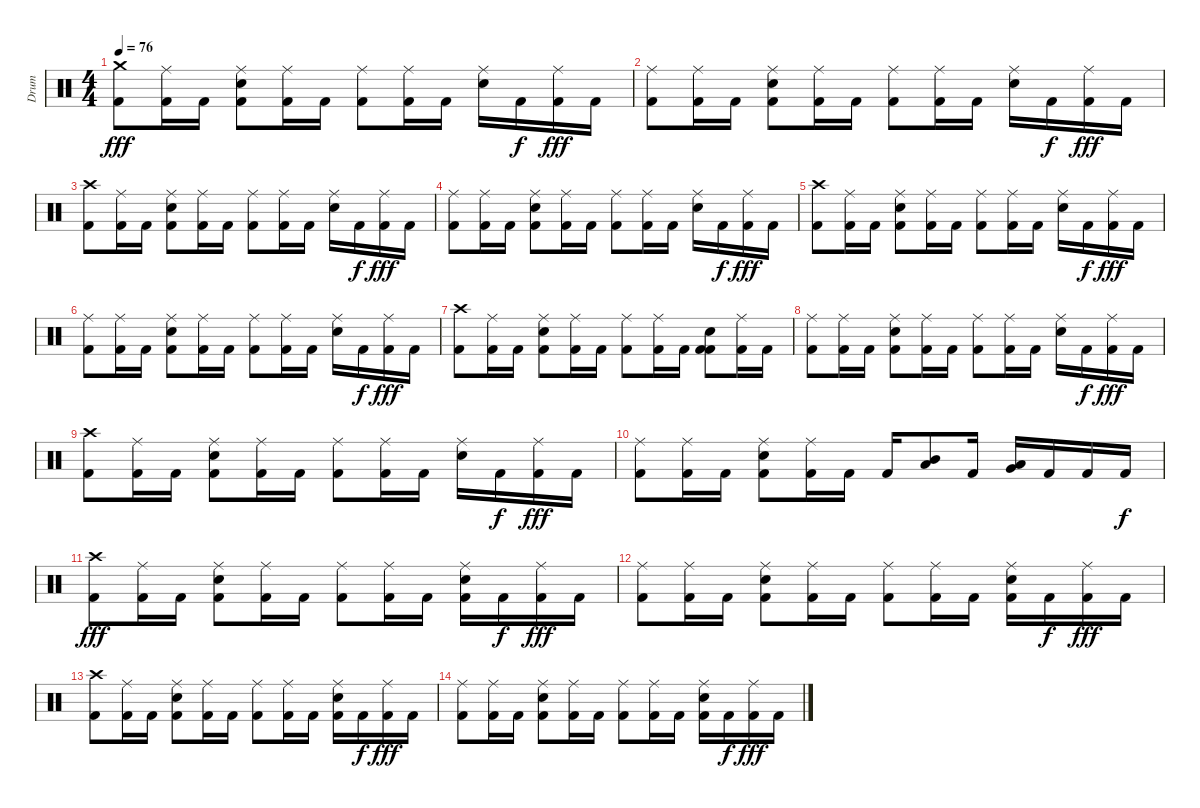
\track ("Drum" "Drum") {instrument percussion}
\staff {score}
\articulation defaults
\ts (4 4)
\tempo 76
\clef neutral
\ks c
("Kick (hit) 2" "Crash medium (hit)").8{dy fff} ("Kick (hit) 2" "Ride (middle)").16 "Kick (hit) 2".16 ("Kick (hit) 2" "Electric Snare (hit)" "Ride (middle)").8 ("Kick (hit) 2" "Ride (middle)").16 "Kick (hit) 2".16 ("Kick (hit) 2" "Ride (middle)").8 ("Kick (hit) 2" "Ride (middle)").16 "Kick (hit) 2".16 ("Electric Snare (hit)" "Ride (middle)").16 "Kick (hit) 2".16{dy f} ("Kick (hit) 2" "Ride (middle)").16{dy fff} "Kick (hit) 2".16 |
("Kick (hit) 2" "Ride (middle)").8 ("Kick (hit) 2" "Ride (middle)").16 "Kick (hit) 2".16 ("Kick (hit) 2" "Electric Snare (hit)" "Ride (middle)").8 ("Kick (hit) 2" "Ride (middle)").16 "Kick (hit) 2".16 ("Kick (hit) 2" "Ride (middle)").8 ("Kick (hit) 2" "Ride (middle)").16 "Kick (hit) 2".16 ("Electric Snare (hit)" "Ride (middle)").16 "Kick (hit) 2".16{dy f} ("Kick (hit) 2" "Ride (middle)").16{dy fff} "Kick (hit) 2".16 |
("Kick (hit) 2" "Crash high (hit)").8 ("Kick (hit) 2" "Ride (middle)").16 "Kick (hit) 2".16 ("Kick (hit) 2" "Electric Snare (hit)" "Ride (middle)").8 ("Kick (hit) 2" "Ride (middle)").16 "Kick (hit) 2".16 ("Kick (hit) 2" "Ride (middle)").8 ("Kick (hit) 2" "Ride (middle)").16 "Kick (hit) 2".16 ("Electric Snare (hit)" "Ride (middle)").16 "Kick (hit) 2".16{dy f} ("Kick (hit) 2" "Ride (middle)").16{dy fff} "Kick (hit) 2".16 |
("Kick (hit) 2" "Ride (middle)").8 ("Kick (hit) 2" "Ride (middle)").16 "Kick (hit) 2".16 ("Kick (hit) 2" "Electric Snare (hit)" "Ride (middle)").8 ("Kick (hit) 2" "Ride (middle)").16 "Kick (hit) 2".16 ("Kick (hit) 2" "Ride (middle)").8 ("Kick (hit) 2" "Ride (middle)").16 "Kick (hit) 2".16 ("Electric Snare (hit)" "Ride (middle)").16 "Kick (hit) 2".16{dy f} ("Kick (hit) 2" "Ride (middle)").16{dy fff} "Kick (hit) 2".16 |
("Kick (hit) 2" "Crash high (hit)").8 ("Kick (hit) 2" "Ride (middle)").16 "Kick (hit) 2".16 ("Kick (hit) 2" "Electric Snare (hit)" "Ride (middle)").8 ("Kick (hit) 2" "Ride (middle)").16 "Kick (hit) 2".16 ("Kick (hit) 2" "Ride (middle)").8 ("Kick (hit) 2" "Ride (middle)").16 "Kick (hit) 2".16 ("Electric Snare (hit)" "Ride (middle)").16 "Kick (hit) 2".16{dy f} ("Kick (hit) 2" "Ride (middle)").16{dy fff} "Kick (hit) 2".16 |
("Kick (hit) 2" "Ride (middle)").8 ("Kick (hit) 2" "Ride (middle)").16 "Kick (hit) 2".16 ("Kick (hit) 2" "Electric Snare (hit)" "Ride (middle)").8 ("Kick (hit) 2" "Ride (middle)").16 "Kick (hit) 2".16 ("Kick (hit) 2" "Ride (middle)").8 ("Kick (hit) 2" "Ride (middle)").16 "Kick (hit) 2".16 ("Electric Snare (hit)" "Ride (middle)").16 "Kick (hit) 2".16{dy f} ("Kick (hit) 2" "Ride (middle)").16{dy fff} "Kick (hit) 2".16 |
("Kick (hit) 2" "Crash high (hit)").8 ("Kick (hit) 2" "Ride (middle)").16 "Kick (hit) 2".16 ("Kick (hit) 2" "Electric Snare (hit)" "Ride (middle)").8 ("Kick (hit) 2" "Ride (middle)").16 "Kick (hit) 2".16 ("Kick (hit) 2" "Ride (middle)").8 ("Kick (hit) 2" "Ride (middle)").16 "Kick (hit) 2".16 ("Kick (hit) 2" "Electric Snare (hit)" "Kick (hit) 2").8 ("Kick (hit) 2" "Ride (middle)").16 "Kick (hit) 2".16 |
("Kick (hit) 2" "Ride (middle)").8 ("Kick (hit) 2" "Ride (middle)").16 "Kick (hit) 2".16 ("Kick (hit) 2" "Electric Snare (hit)" "Ride (middle)").8 ("Kick (hit) 2" "Ride (middle)").16 "Kick (hit) 2".16 ("Kick (hit) 2" "Ride (middle)").8 ("Kick (hit) 2" "Ride (middle)").16 "Kick (hit) 2".16 ("Electric Snare (hit)" "Ride (middle)").16 "Kick (hit) 2".16{dy f} ("Kick (hit) 2" "Ride (middle)").16{dy fff} "Kick (hit) 2".16 |
("Kick (hit) 2" "Crash high (hit)").8 ("Kick (hit) 2" "Ride (middle)").16 "Kick (hit) 2".16 ("Kick (hit) 2" "Electric Snare (hit)" "Ride (middle)").8 ("Kick (hit) 2" "Ride (middle)").16 "Kick (hit) 2".16 ("Kick (hit) 2" "Ride (middle)").8 ("Kick (hit) 2" "Ride (middle)").16 "Kick (hit) 2".16 ("Electric Snare (hit)" "Ride (middle)").16 "Kick (hit) 2".16{dy f} ("Kick (hit) 2" "Ride (middle)").16{dy fff} "Kick (hit) 2".16 |
("Kick (hit) 2" "Ride (middle)").8 ("Kick (hit) 2" "Ride (middle)").16 "Kick (hit) 2".16 ("Kick (hit) 2" "Electric Snare (hit)" "Ride (middle)").8 ("Kick (hit) 2" "Ride (middle)").16 "Kick (hit) 2".16 "Kick (hit) 2".16{volume 16} ("Low Tom (hit)" "Mid Tom (hit)").8{volume 16} "Kick (hit) 2".16{volume 15} ("Low Tom (hit)" "Very Low Tom (hit)").16{volume 15} "Kick (hit) 2".16{volume 15} "Kick (hit) 2".16{volume 15} "Kick (hit) 2".16{dy f} |
("Kick (hit) 2" "Crash high (hit)").8{dy fff volume 14} ("Kick (hit) 2" "Ride (middle)").16{volume 14} "Kick (hit) 2".16{volume 14} ("Kick (hit) 2" "Electric Snare (hit)" "Ride (middle)").8{volume 13} ("Kick (hit) 2" "Ride (middle)").16{volume 13} "Kick (hit) 2".16{volume 13} ("Kick (hit) 2" "Ride (middle)").8{volume 12} ("Kick (hit) 2" "Ride (middle)").16{volume 12} "Kick (hit) 2".16{volume 12} ("Kick (hit) 2" "Electric Snare (hit)" "Ride (middle)").16{volume 12} "Kick (hit) 2".16{dy f} ("Kick (hit) 2" "Ride (middle)").16{dy fff volume 11} "Kick (hit) 2".16{volume 11} |
("Kick (hit) 2" "Ride (middle)").8{volume 11} ("Kick (hit) 2" "Ride (middle)").16{volume 10} "Kick (hit) 2".16{volume 10} ("Kick (hit) 2" "Electric Snare (hit)" "Ride (middle)").8{volume 10} ("Kick (hit) 2" "Ride (middle)").16{volume 9} "Kick (hit) 2".16{volume 9} ("Kick (hit) 2" "Ride (middle)").8{volume 9} ("Kick (hit) 2" "Ride (middle)").16{volume 8} "Kick (hit) 2".16{volume 8} ("Kick (hit) 2" "Electric Snare (hit)" "Ride (middle)").16{volume 8} "Kick (hit) 2".16{dy f} ("Kick (hit) 2" "Ride (middle)").16{dy fff volume 8} "Kick (hit) 2".16{volume 7} |
("Kick (hit) 2" "Crash high (hit)").8{volume 7} ("Kick (hit) 2" "Ride (middle)").16{volume 7} "Kick (hit) 2".16{volume 6} ("Kick (hit) 2" "Electric Snare (hit)" "Ride (middle)").8{volume 6} ("Kick (hit) 2" "Ride (middle)").16{volume 6} "Kick (hit) 2".16{volume 6} ("Kick (hit) 2" "Ride (middle)").8{volume 5} ("Kick (hit) 2" "Ride (middle)").16{volume 5} "Kick (hit) 2".16{volume 5} ("Kick (hit) 2" "Electric Snare (hit)" "Ride (middle)").16{volume 4} "Kick (hit) 2".16{dy f} ("Kick (hit) 2" "Ride (middle)").16{dy fff volume 4} "Kick (hit) 2".16{volume 4} |
("Kick (hit) 2" "Ride (middle)").8{volume 4} ("Kick (hit) 2" "Ride (middle)").16{volume 3} "Kick (hit) 2".16{volume 3} ("Kick (hit) 2" "Electric Snare (hit)" "Ride (middle)").8{volume 3} ("Kick (hit) 2" "Ride (middle)").16{volume 2} "Kick (hit) 2".16{volume 2} ("Kick (hit) 2" "Ride (middle)").8{volume 2} ("Kick (hit) 2" "Ride (middle)").16{volume 1} "Kick (hit) 2".16{volume 1} ("Kick (hit) 2" "Electric Snare (hit)" "Ride (middle)").16{volume 1} "Kick (hit) 2".16{dy f} ("Kick (hit) 2" "Ride (middle)").16{dy fff volume 0} "Kick (hit) 2".16{volume 0}
